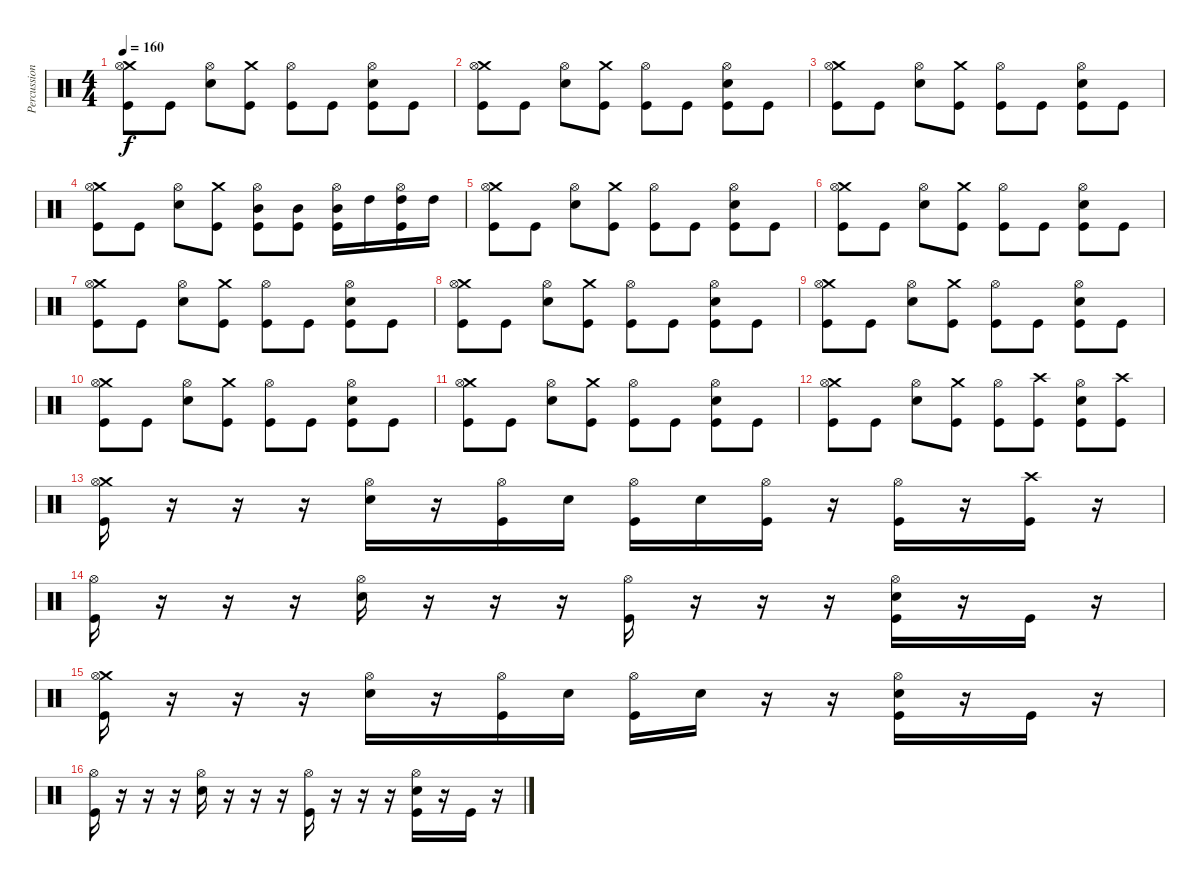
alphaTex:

\track ("Percussion" "Percussion") {instrument percussion}
\staff {score}
\articulation defaults
\ts (4 4)
\tempo 160
\clef neutral
\ks c
("Crash medium (hit)" "Hi-Hat (open)" "Kick (hit)").8{dy f} "Kick (hit)".8 ("Snare (hit) 2" "Hi-Hat (open)").8 ("Crash medium (hit)" "Kick (hit)").8 ("Hi-Hat (open)" "Kick (hit)").8 "Kick (hit)".8 ("Snare (hit) 2" "Hi-Hat (open)" "Kick (hit)").8 "Kick (hit)".8 |
("Crash medium (hit)" "Hi-Hat (open)" "Kick (hit)").8 "Kick (hit)".8 ("Snare (hit) 2" "Hi-Hat (open)").8 ("Crash medium (hit)" "Kick (hit)").8 ("Hi-Hat (open)" "Kick (hit)").8 "Kick (hit)".8 ("Snare (hit) 2" "Hi-Hat (open)" "Kick (hit)").8 "Kick (hit)".8 |
("Crash medium (hit)" "Hi-Hat (open)" "Kick (hit)").8 "Kick (hit)".8 ("Snare (hit) 2" "Hi-Hat (open)").8 ("Crash medium (hit)" "Kick (hit)").8 ("Hi-Hat (open)" "Kick (hit)").8 "Kick (hit)".8 ("Snare (hit) 2" "Hi-Hat (open)" "Kick (hit)").8 "Kick (hit)".8 |
("Crash medium (hit)" "Hi-Hat (open)" "Kick (hit)").8 "Kick (hit)".8 ("Snare (hit) 2" "Hi-Hat (open)").8 ("Crash medium (hit)" "Kick (hit)").8 ("Mid Tom (hit)" "Hi-Hat (open)" "Kick (hit)").8 ("Mid Tom (hit)" "Kick (hit)").8 ("Mid Tom (hit)" "Hi-Hat (open)" "Kick (hit)").16 "High Tom (hit)".16 ("High Tom (hit)" "Hi-Hat (open)" "Kick (hit)").16 "High Tom (hit)".16 |
("Crash medium (hit)" "Hi-Hat (open)" "Kick (hit)").8 "Kick (hit)".8 ("Snare (hit) 2" "Hi-Hat (open)").8 ("Crash medium (hit)" "Kick (hit)").8 ("Hi-Hat (open)" "Kick (hit)").8 "Kick (hit)".8 ("Snare (hit) 2" "Hi-Hat (open)" "Kick (hit)").8 "Kick (hit)".8 |
("Crash medium (hit)" "Hi-Hat (open)" "Kick (hit)").8 "Kick (hit)".8 ("Snare (hit) 2" "Hi-Hat (open)").8 ("Crash medium (hit)" "Kick (hit)").8 ("Hi-Hat (open)" "Kick (hit)").8 "Kick (hit)".8 ("Snare (hit) 2" "Hi-Hat (open)" "Kick (hit)").8 "Kick (hit)".8 |
("Crash medium (hit)" "Hi-Hat (open)" "Kick (hit)").8 "Kick (hit)".8 ("Snare (hit) 2" "Hi-Hat (open)").8 ("Crash medium (hit)" "Kick (hit)").8 ("Hi-Hat (open)" "Kick (hit)").8 "Kick (hit)".8 ("Snare (hit) 2" "Hi-Hat (open)" "Kick (hit)").8 "Kick (hit)".8 |
("Crash medium (hit)" "Hi-Hat (open)" "Kick (hit)").8 "Kick (hit)".8 ("Snare (hit) 2" "Hi-Hat (open)").8 ("Crash medium (hit)" "Kick (hit)").8 ("Hi-Hat (open)" "Kick (hit)").8 "Kick (hit)".8 ("Snare (hit) 2" "Hi-Hat (open)" "Kick (hit)").8 "Kick (hit)".8 |
("Crash medium (hit)" "Hi-Hat (open)" "Kick (hit)").8 "Kick (hit)".8 ("Snare (hit) 2" "Hi-Hat (open)").8 ("Crash medium (hit)" "Kick (hit)").8 ("Hi-Hat (open)" "Kick (hit)").8 "Kick (hit)".8 ("Snare (hit) 2" "Hi-Hat (open)" "Kick (hit)").8 "Kick (hit)".8 |
("Crash medium (hit)" "Hi-Hat (open)" "Kick (hit)").8 "Kick (hit)".8 ("Snare (hit) 2" "Hi-Hat (open)").8 ("Crash medium (hit)" "Kick (hit)").8 ("Hi-Hat (open)" "Kick (hit)").8 "Kick (hit)".8 ("Snare (hit) 2" "Hi-Hat (open)" "Kick (hit)").8 "Kick (hit)".8 |
("Crash medium (hit)" "Hi-Hat (open)" "Kick (hit)").8 "Kick (hit)".8 ("Snare (hit) 2" "Hi-Hat (open)").8 ("Crash medium (hit)" "Kick (hit)").8 ("Hi-Hat (open)" "Kick (hit)").8 "Kick (hit)".8 ("Snare (hit) 2" "Hi-Hat (open)" "Kick (hit)").8 "Kick (hit)".8 |
("Crash medium (hit)" "Hi-Hat (open)" "Kick (hit)").8 "Kick (hit)".8 ("Snare (hit) 2" "Hi-Hat (open)").8 ("Crash medium (hit)" "Kick (hit)").8 ("Hi-Hat (open)" "Kick (hit)").8 ("Crash high (hit)" "Kick (hit)").8 ("Snare (hit) 2" "Hi-Hat (open)" "Kick (hit)").8 ("Crash high (hit)" "Kick (hit)").8 |
("Crash medium (hit)" "Hi-Hat (open)" "Kick (hit)").16 r.16 r.16 r.16 ("Snare (hit) 2" "Hi-Hat (open)").16 r.16 ("Hi-Hat (open)" "Kick (hit)").16 "Snare (hit) 2".16 ("Hi-Hat (open)" "Kick (hit)").16 "Snare (hit) 2".16 ("Hi-Hat (open)" "Kick (hit)").16 r.16 ("Hi-Hat (open)" "Kick (hit)").16 r.16 ("Crash high (hit)" "Kick (hit)").16 r.16 |
("Hi-Hat (open)" "Kick (hit)").16 r.16 r.16 r.16 ("Snare (hit) 2" "Hi-Hat (open)").16 r.16 r.16 r.16 ("Hi-Hat (open)" "Kick (hit)").16 r.16 r.16 r.16 ("Snare (hit) 2" "Hi-Hat (open)" "Kick (hit)").16 r.16 "Kick (hit)".16 r.16 |
("Crash medium (hit)" "Hi-Hat (open)" "Kick (hit)").16 r.16 r.16 r.16 ("Snare (hit) 2" "Hi-Hat (open)").16 r.16 ("Hi-Hat (open)" "Kick (hit)").16 "Snare (hit) 2".16 ("Hi-Hat (open)" "Kick (hit)").16 "Snare (hit) 2".16 r.16 r.16 ("Snare (hit) 2" "Hi-Hat (open)" "Kick (hit)").16 r.16 "Kick (hit)".16 r.16 |
("Hi-Hat (open)" "Kick (hit)").16 r.16 r.16 r.16 ("Snare (hit) 2" "Hi-Hat (open)").16 r.16 r.16 r.16 ("Hi-Hat (open)" "Kick (hit)").16 r.16 r.16 r.16 ("Snare (hit) 2" "Hi-Hat (open)" "Kick (hit)").16 r.16 "Kick (hit)".16 r.16
